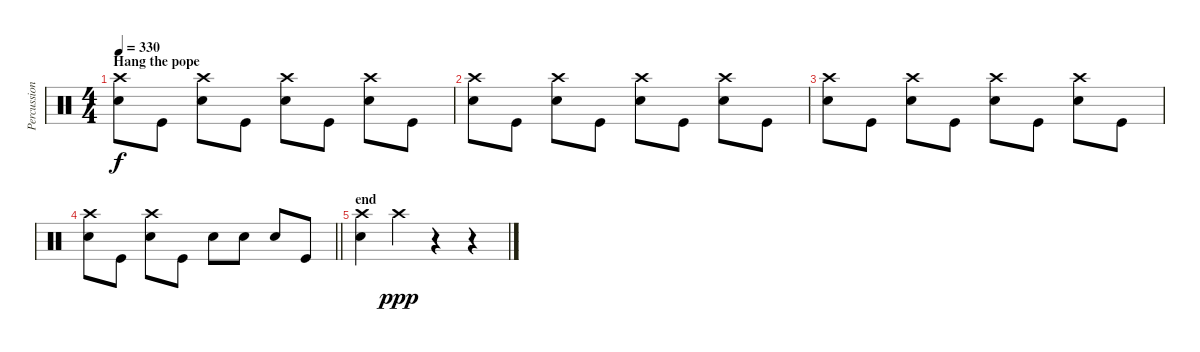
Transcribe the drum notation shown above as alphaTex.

\track ("Percussioni" "Percussion") {instrument percussion}
\staff {score}
\articulation defaults
\ts (4 4)
\section ("" "Hang the pope")
\tempo 330
\clef neutral
\ks c
("Crash high (hit)" "Snare (hit) 2").8{dy f} "Kick (hit)".8 ("Crash high (hit)" "Snare (hit) 2").8 "Kick (hit)".8 ("Crash high (hit)" "Snare (hit) 2").8 "Kick (hit)".8 ("Crash high (hit)" "Snare (hit) 2").8 "Kick (hit)".8 |
("Crash high (hit)" "Snare (hit) 2").8 "Kick (hit)".8 ("Crash high (hit)" "Snare (hit) 2").8 "Kick (hit)".8 ("Crash high (hit)" "Snare (hit) 2").8 "Kick (hit)".8 ("Crash high (hit)" "Snare (hit) 2").8 "Kick (hit)".8 |
("Crash high (hit)" "Snare (hit) 2").8 "Kick (hit)".8 ("Crash high (hit)" "Snare (hit) 2").8 "Kick (hit)".8 ("Crash high (hit)" "Snare (hit) 2").8 "Kick (hit)".8 ("Crash high (hit)" "Snare (hit) 2").8 "Kick (hit)".8 |
\barLineRight lightlight
("Crash high (hit)" "Snare (hit) 2").8 "Kick (hit)".8 ("Crash high (hit)" "Snare (hit) 2").8 "Kick (hit)".8 "Snare (hit) 2".8 "Snare (hit) 2".8 "Snare (hit) 2".8 "Kick (hit)".8 |
\section ("" "end")
("Crash high (hit)" "Snare (hit) 2").4 "Crash high (hit)".4{dy ppp} r.4 r.4
